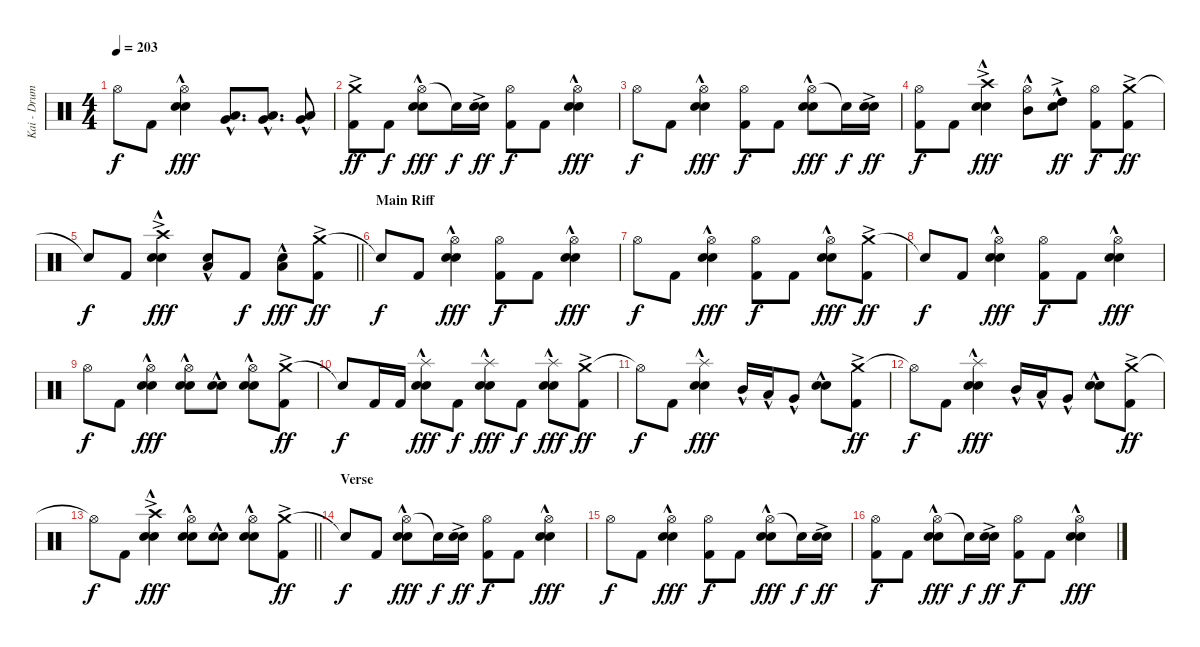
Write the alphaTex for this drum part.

\track ("Kai - Drums" "Kai - Drum") {instrument percussion}
\staff {score}
\articulation defaults
\ts (4 4)
\tempo 203
\clef neutral
\ks c "Hi-Hat (open)".8{dy f} "Kick (hit) 2".8
("Hi-Hat (open)" "Electric Snare (hit)"{hac} "Snare (hit) 2"{hac}).4{dy fff} ("Low Tom (hit)"{hac} "Very Low Tom (hit)"{hac}).8{d} ("Low Tom (hit)"{hac} "Very Low Tom (hit)"{hac}).8{d} ("Low Tom (hit)"{hac} "Very Low Tom (hit)"{hac}).8 |
("Crash medium (hit)"{ac} "Kick (hit) 2").8{dy ff} "Kick (hit) 2".8{dy f} ("Hi-Hat (open)" "Electric Snare (hit)"{hac} "Snare (hit) 2"{hac}).8{dy fff} "Snare (hit)"{t}.16{dy f} ("Electric Snare (hit)"{ac} "Snare (hit) 2"{ac}).16{dy ff} ("Hi-Hat (open)" "Kick (hit) 2").8{dy f} "Kick (hit) 2".8 ("Hi-Hat (open)" "Electric Snare (hit)"{hac} "Snare (hit) 2"{hac}).4{dy fff} |
"Hi-Hat (open)".8{dy f} "Kick (hit) 2".8 ("Hi-Hat (open)" "Electric Snare (hit)"{hac} "Snare (hit) 2"{hac}).4{dy fff} ("Hi-Hat (open)" "Kick (hit) 2").8{dy f} "Kick (hit) 2".8 ("Hi-Hat (open)" "Electric Snare (hit)"{hac} "Snare (hit) 2"{hac}).8{dy fff} "Snare (hit)"{t}.16{dy f} ("Electric Snare (hit)"{ac} "Snare (hit) 2"{ac}).16{dy ff} |
("Hi-Hat (open)" "Kick (hit) 2").8{dy f} "Kick (hit) 2".8 ("Crash high (hit)"{ac} "Electric Snare (hit)"{hac} "Snare (hit) 2"{hac}).4{dy fff} ("Hi-Hat (open)" "Mid Tom (hit)"{hac}).8 ("Electric Snare (hit)"{hac} "High Tom (hit)"{ac}).8{dy ff} ("Hi-Hat (open)" "Kick (hit) 2").8{dy f} ("Crash medium (hit)"{ac} "Kick (hit) 2").8{dy ff} |
\barLineRight lightlight "Snare (hit)"{t}.8{dy f} "Kick (hit) 2".8
("Crash high (hit)"{ac} "Electric Snare (hit)"{hac} "Snare (hit) 2"{hac}).4{dy fff} ("Electric Snare (hit)"{hac} "Low Tom (hit)"{hac}).8 "Kick (hit) 2".8{dy f} ("Electric Snare (hit)"{hac} "Low Tom (hit)"{hac}).8{dy fff} ("Crash medium (hit)"{ac} "Kick (hit) 2").8{dy ff} |
\section ("" "Main Riff")
"Snare (hit)"{t}.8{dy f} "Kick (hit) 2".8 ("Hi-Hat (open)" "Electric Snare (hit)"{hac} "Snare (hit) 2"{hac}).4{dy fff} ("Hi-Hat (open)" "Kick (hit) 2").8{dy f} "Kick (hit) 2".8 ("Hi-Hat (open)" "Electric Snare (hit)"{hac} "Snare (hit) 2"{hac}).4{dy fff} |
"Hi-Hat (open)".8{dy f} "Kick (hit) 2".8 ("Hi-Hat (open)" "Electric Snare (hit)"{hac} "Snare (hit) 2"{hac}).4{dy fff} ("Hi-Hat (open)" "Kick (hit) 2").8{dy f} "Kick (hit) 2".8 ("Hi-Hat (open)" "Electric Snare (hit)"{hac} "Snare (hit) 2"{hac}).8{dy fff} ("Crash medium (hit)"{ac} "Kick (hit) 2").8{dy ff} |
"Snare (hit)"{t}.8{dy f} "Kick (hit) 2".8 ("Hi-Hat (open)" "Electric Snare (hit)"{hac} "Snare (hit) 2"{hac}).4{dy fff} ("Hi-Hat (open)" "Kick (hit) 2").8{dy f} "Kick (hit) 2".8 ("Hi-Hat (open)" "Electric Snare (hit)"{hac} "Snare (hit) 2"{hac}).4{dy fff} |
"Hi-Hat (open)".8{dy f} "Kick (hit) 2".8 ("Hi-Hat (open)" "Electric Snare (hit)"{hac} "Snare (hit) 2"{hac}).4{dy fff} ("Hi-Hat (open)" "Electric Snare (hit)"{hac} "Snare (hit) 2"{hac}).8 ("Electric Snare (hit)"{hac} "Snare (hit) 2"{hac}).8 ("Hi-Hat (open)" "Electric Snare (hit)"{hac} "Snare (hit) 2"{hac}).8 ("Crash medium (hit)"{ac} "Kick (hit) 2").8{dy ff} |
"Snare (hit)"{t}.8{dy f} "Kick (hit) 2".16 "Kick (hit) 2".16 ("Splash (hit)"{hac} "Electric Snare (hit)"{hac} "Snare (hit) 2"{hac}).8{dy fff} "Kick (hit) 2".8{dy f} ("Splash (hit)"{hac} "Electric Snare (hit)"{hac} "Snare (hit) 2"{hac}).8{dy fff} "Kick (hit) 2".8{dy f} ("Splash (hit)"{hac} "Electric Snare (hit)"{hac} "Snare (hit) 2"{hac}).8{dy fff} ("Crash medium (hit)"{ac} "Kick (hit) 2").8{dy ff} |
"Hi-Hat (open)"{t}.8{dy f} "Kick (hit) 2".8 ("Splash (hit)"{hac} "Electric Snare (hit)"{hac} "Snare (hit) 2"{hac}).4{dy fff} "Mid Tom (hit)"{hac}.16 "Low Tom (hit)"{hac}.16 "Very Low Tom (hit)"{hac}.8 ("Electric Snare (hit)"{hac} "Snare (hit) 2"{hac}).8 ("Crash medium (hit)"{ac} "Kick (hit) 2").8{dy ff} |
"Hi-Hat (open)"{t}.8{dy f} "Kick (hit) 2".8 ("Splash (hit)"{hac} "Electric Snare (hit)"{hac} "Snare (hit) 2"{hac}).4{dy fff} "Mid Tom (hit)"{hac}.16 "Low Tom (hit)"{hac}.16 "Very Low Tom (hit)"{hac}.8 ("Electric Snare (hit)"{hac} "Snare (hit) 2"{hac}).8 ("Crash medium (hit)"{ac} "Kick (hit) 2").8{dy ff} |
\barLineRight lightlight "Hi-Hat (open)"{t}.8{dy f} "Kick (hit) 2".8
("Crash high (hit)"{ac} "Electric Snare (hit)"{hac} "Snare (hit) 2"{hac}).4{dy fff} ("Hi-Hat (open)" "Electric Snare (hit)"{hac} "Snare (hit) 2"{hac}).8 ("Electric Snare (hit)"{hac} "Snare (hit) 2"{hac}).8 ("Hi-Hat (open)" "Electric Snare (hit)"{hac} "Snare (hit) 2"{hac}).8 ("Crash medium (hit)"{ac} "Kick (hit) 2").8{dy ff} |
\section ("" "Verse")
"Snare (hit)"{t}.8{dy f} "Kick (hit) 2".8 ("Hi-Hat (open)" "Electric Snare (hit)"{hac} "Snare (hit) 2"{hac}).8{dy fff} "Snare (hit)"{t}.16{dy f} ("Electric Snare (hit)"{ac} "Snare (hit) 2"{ac}).16{dy ff} ("Hi-Hat (open)" "Kick (hit) 2").8{dy f} "Kick (hit) 2".8 ("Hi-Hat (open)" "Electric Snare (hit)"{hac} "Snare (hit) 2"{hac}).4{dy fff} |
"Hi-Hat (open)".8{dy f} "Kick (hit) 2".8 ("Hi-Hat (open)" "Electric Snare (hit)"{hac} "Snare (hit) 2"{hac}).4{dy fff} ("Hi-Hat (open)" "Kick (hit) 2").8{dy f} "Kick (hit) 2".8 ("Hi-Hat (open)" "Electric Snare (hit)"{hac} "Snare (hit) 2"{hac}).8{dy fff} "Snare (hit)"{t}.16{dy f} ("Electric Snare (hit)"{ac} "Snare (hit) 2"{ac}).16{dy ff} |
("Hi-Hat (open)" "Kick (hit) 2").8{dy f} "Kick (hit) 2".8 ("Hi-Hat (open)" "Electric Snare (hit)"{hac} "Snare (hit) 2"{hac}).8{dy fff} "Snare (hit)"{t}.16{dy f} ("Electric Snare (hit)"{ac} "Snare (hit) 2"{ac}).16{dy ff} ("Hi-Hat (open)" "Kick (hit) 2").8{dy f} "Kick (hit) 2".8 ("Hi-Hat (open)" "Electric Snare (hit)"{hac} "Snare (hit) 2"{hac}).4{dy fff}
